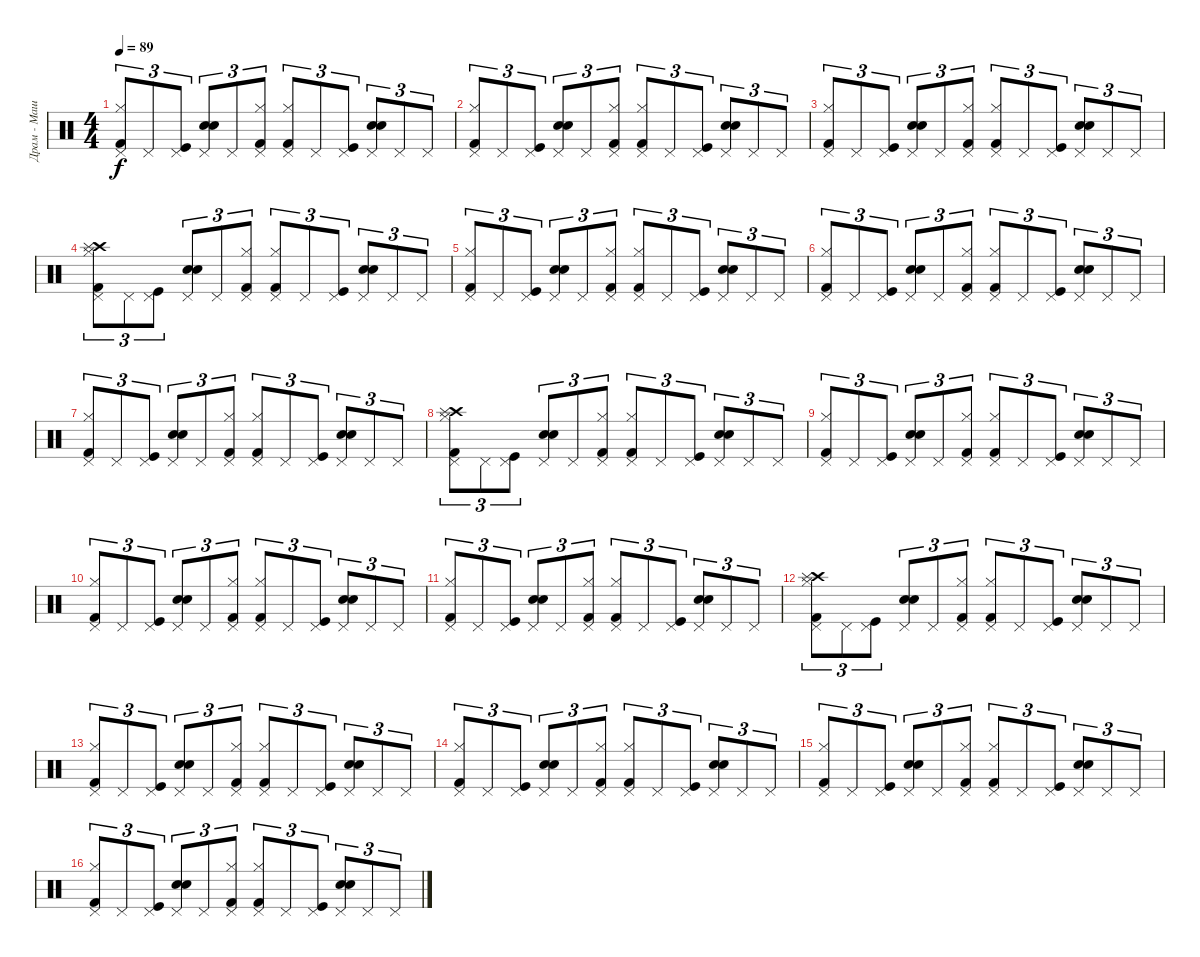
\track ("Драм - Машина" "Драм - Маш") {instrument percussion}
\staff {score}
\articulation defaults
\ts (4 4)
\tempo 89
\clef neutral
\ks c
("Kick (hit) 2" "Hi-Hat (closed)" "Pedal Hi-Hat (hit)").8{tu (3 2) dy f} "Pedal Hi-Hat (hit)".8{tu (3 2)} ("Pedal Hi-Hat (hit)" "Kick (hit)").8{tu (3 2)} ("Electric Snare (hit)" "Snare (hit) 2" "Pedal Hi-Hat (hit)").8{tu (3 2)} "Pedal Hi-Hat (hit)".8{tu (3 2)} ("Hi-Hat (closed)" "Kick (hit) 2" "Pedal Hi-Hat (hit)").8{tu (3 2)} ("Hi-Hat (closed)" "Kick (hit) 2" "Pedal Hi-Hat (hit)").8{tu (3 2)} "Pedal Hi-Hat (hit)".8{tu (3 2)} ("Kick (hit)" "Pedal Hi-Hat (hit)").8{tu (3 2)} ("Electric Snare (hit)" "Snare (hit) 2" "Pedal Hi-Hat (hit)").8{tu (3 2)} "Pedal Hi-Hat (hit)".8{tu (3 2)} "Pedal Hi-Hat (hit)".8{tu (3 2)} |
("Kick (hit) 2" "Hi-Hat (closed)" "Pedal Hi-Hat (hit)").8{tu (3 2)} "Pedal Hi-Hat (hit)".8{tu (3 2)} ("Kick (hit)" "Pedal Hi-Hat (hit)").8{tu (3 2)} ("Pedal Hi-Hat (hit)" "Snare (hit) 2" "Electric Snare (hit)").8{tu (3 2)} "Pedal Hi-Hat (hit)".8{tu (3 2)} ("Kick (hit) 2" "Hi-Hat (closed)" "Pedal Hi-Hat (hit)").8{tu (3 2)} ("Kick (hit) 2" "Hi-Hat (closed)" "Pedal Hi-Hat (hit)").8{tu (3 2)} "Pedal Hi-Hat (hit)".8{tu (3 2)} ("Kick (hit)" "Pedal Hi-Hat (hit)").8{tu (3 2)} ("Snare (hit) 2" "Pedal Hi-Hat (hit)" "Electric Snare (hit)").8{tu (3 2)} "Pedal Hi-Hat (hit)".8{tu (3 2)} "Pedal Hi-Hat (hit)".8{tu (3 2)} |
("Kick (hit) 2" "Hi-Hat (closed)" "Pedal Hi-Hat (hit)").8{tu (3 2)} "Pedal Hi-Hat (hit)".8{tu (3 2)} ("Kick (hit)" "Pedal Hi-Hat (hit)").8{tu (3 2)} ("Snare (hit) 2" "Pedal Hi-Hat (hit)" "Electric Snare (hit)").8{tu (3 2)} "Pedal Hi-Hat (hit)".8{tu (3 2)} ("Hi-Hat (closed)" "Pedal Hi-Hat (hit)" "Kick (hit) 2").8{tu (3 2)} ("Hi-Hat (closed)" "Pedal Hi-Hat (hit)" "Kick (hit) 2").8{tu (3 2)} "Pedal Hi-Hat (hit)".8{tu (3 2)} ("Pedal Hi-Hat (hit)" "Kick (hit)").8{tu (3 2)} ("Snare (hit) 2" "Electric Snare (hit)" "Pedal Hi-Hat (hit)").8{tu (3 2)} "Pedal Hi-Hat (hit)".8{tu (3 2)} "Pedal Hi-Hat (hit)".8{tu (3 2)} |
("Crash high (hit)" "Pedal Hi-Hat (hit)" "Kick (hit) 2" "Hi-Hat (closed)" "Splash (hit)").8{tu (3 2)} "Pedal Hi-Hat (hit)".8{tu (3 2)} ("Kick (hit)" "Pedal Hi-Hat (hit)").8{tu (3 2)} ("Electric Snare (hit)" "Pedal Hi-Hat (hit)" "Snare (hit) 2").8{tu (3 2)} "Pedal Hi-Hat (hit)".8{tu (3 2)} ("Hi-Hat (closed)" "Pedal Hi-Hat (hit)" "Kick (hit) 2").8{tu (3 2)} ("Kick (hit) 2" "Hi-Hat (closed)" "Pedal Hi-Hat (hit)").8{tu (3 2)} "Pedal Hi-Hat (hit)".8{tu (3 2)} ("Kick (hit)" "Pedal Hi-Hat (hit)").8{tu (3 2)} ("Snare (hit) 2" "Pedal Hi-Hat (hit)" "Electric Snare (hit)").8{tu (3 2)} "Pedal Hi-Hat (hit)".8{tu (3 2)} "Pedal Hi-Hat (hit)".8{tu (3 2)} |
("Hi-Hat (closed)" "Pedal Hi-Hat (hit)" "Kick (hit) 2").8{tu (3 2)} "Pedal Hi-Hat (hit)".8{tu (3 2)} ("Kick (hit)" "Pedal Hi-Hat (hit)").8{tu (3 2)} ("Electric Snare (hit)" "Pedal Hi-Hat (hit)" "Snare (hit) 2").8{tu (3 2)} "Pedal Hi-Hat (hit)".8{tu (3 2)} ("Hi-Hat (closed)" "Pedal Hi-Hat (hit)" "Kick (hit) 2").8{tu (3 2)} ("Kick (hit) 2" "Pedal Hi-Hat (hit)" "Hi-Hat (closed)").8{tu (3 2)} "Pedal Hi-Hat (hit)".8{tu (3 2)} ("Pedal Hi-Hat (hit)" "Kick (hit)").8{tu (3 2)} ("Pedal Hi-Hat (hit)" "Electric Snare (hit)" "Snare (hit) 2").8{tu (3 2)} "Pedal Hi-Hat (hit)".8{tu (3 2)} "Pedal Hi-Hat (hit)".8{tu (3 2)} |
("Hi-Hat (closed)" "Pedal Hi-Hat (hit)" "Kick (hit) 2").8{tu (3 2)} "Pedal Hi-Hat (hit)".8{tu (3 2)} ("Pedal Hi-Hat (hit)" "Kick (hit)").8{tu (3 2)} ("Pedal Hi-Hat (hit)" "Electric Snare (hit)" "Snare (hit) 2").8{tu (3 2)} "Pedal Hi-Hat (hit)".8{tu (3 2)} ("Hi-Hat (closed)" "Pedal Hi-Hat (hit)" "Kick (hit) 2").8{tu (3 2)} ("Hi-Hat (closed)" "Kick (hit) 2" "Pedal Hi-Hat (hit)").8{tu (3 2)} "Pedal Hi-Hat (hit)".8{tu (3 2)} ("Pedal Hi-Hat (hit)" "Kick (hit)").8{tu (3 2)} ("Pedal Hi-Hat (hit)" "Snare (hit) 2" "Electric Snare (hit)").8{tu (3 2)} "Pedal Hi-Hat (hit)".8{tu (3 2)} "Pedal Hi-Hat (hit)".8{tu (3 2)} |
("Kick (hit) 2" "Hi-Hat (closed)" "Pedal Hi-Hat (hit)").8{tu (3 2)} "Pedal Hi-Hat (hit)".8{tu (3 2)} ("Kick (hit)" "Pedal Hi-Hat (hit)").8{tu (3 2)} ("Snare (hit) 2" "Pedal Hi-Hat (hit)" "Electric Snare (hit)").8{tu (3 2)} "Pedal Hi-Hat (hit)".8{tu (3 2)} ("Pedal Hi-Hat (hit)" "Hi-Hat (closed)" "Kick (hit) 2").8{tu (3 2)} ("Kick (hit) 2" "Hi-Hat (closed)" "Pedal Hi-Hat (hit)").8{tu (3 2)} "Pedal Hi-Hat (hit)".8{tu (3 2)} ("Pedal Hi-Hat (hit)" "Kick (hit)").8{tu (3 2)} ("Snare (hit) 2" "Pedal Hi-Hat (hit)" "Electric Snare (hit)").8{tu (3 2)} "Pedal Hi-Hat (hit)".8{tu (3 2)} "Pedal Hi-Hat (hit)".8{tu (3 2)} |
("Crash high (hit)" "Hi-Hat (closed)" "Kick (hit) 2" "Splash (hit)" "Pedal Hi-Hat (hit)").8{tu (3 2)} "Pedal Hi-Hat (hit)".8{tu (3 2)} ("Kick (hit)" "Pedal Hi-Hat (hit)").8{tu (3 2)} ("Electric Snare (hit)" "Pedal Hi-Hat (hit)" "Snare (hit) 2").8{tu (3 2)} "Pedal Hi-Hat (hit)".8{tu (3 2)} ("Kick (hit) 2" "Pedal Hi-Hat (hit)" "Hi-Hat (closed)").8{tu (3 2)} ("Hi-Hat (closed)" "Pedal Hi-Hat (hit)" "Kick (hit) 2").8{tu (3 2)} "Pedal Hi-Hat (hit)".8{tu (3 2)} ("Pedal Hi-Hat (hit)" "Kick (hit)").8{tu (3 2)} ("Pedal Hi-Hat (hit)" "Electric Snare (hit)" "Snare (hit) 2").8{tu (3 2)} "Pedal Hi-Hat (hit)".8{tu (3 2)} "Pedal Hi-Hat (hit)".8{tu (3 2)} |
("Kick (hit) 2" "Hi-Hat (closed)" "Pedal Hi-Hat (hit)").8{tu (3 2)} "Pedal Hi-Hat (hit)".8{tu (3 2)} ("Pedal Hi-Hat (hit)" "Kick (hit)").8{tu (3 2)} ("Pedal Hi-Hat (hit)" "Snare (hit) 2" "Electric Snare (hit)").8{tu (3 2)} "Pedal Hi-Hat (hit)".8{tu (3 2)} ("Pedal Hi-Hat (hit)" "Kick (hit) 2" "Hi-Hat (closed)").8{tu (3 2)} ("Hi-Hat (closed)" "Kick (hit) 2" "Pedal Hi-Hat (hit)").8{tu (3 2)} "Pedal Hi-Hat (hit)".8{tu (3 2)} ("Kick (hit)" "Pedal Hi-Hat (hit)").8{tu (3 2)} ("Pedal Hi-Hat (hit)" "Snare (hit) 2" "Electric Snare (hit)").8{tu (3 2)} "Pedal Hi-Hat (hit)".8{tu (3 2)} "Pedal Hi-Hat (hit)".8{tu (3 2)} |
("Kick (hit) 2" "Hi-Hat (closed)" "Pedal Hi-Hat (hit)").8{tu (3 2)} "Pedal Hi-Hat (hit)".8{tu (3 2)} ("Kick (hit)" "Pedal Hi-Hat (hit)").8{tu (3 2)} ("Electric Snare (hit)" "Snare (hit) 2" "Pedal Hi-Hat (hit)").8{tu (3 2)} "Pedal Hi-Hat (hit)".8{tu (3 2)} ("Pedal Hi-Hat (hit)" "Hi-Hat (closed)" "Kick (hit) 2").8{tu (3 2)} ("Kick (hit) 2" "Hi-Hat (closed)" "Pedal Hi-Hat (hit)").8{tu (3 2)} "Pedal Hi-Hat (hit)".8{tu (3 2)} ("Kick (hit)" "Pedal Hi-Hat (hit)").8{tu (3 2)} ("Electric Snare (hit)" "Pedal Hi-Hat (hit)" "Snare (hit) 2").8{tu (3 2)} "Pedal Hi-Hat (hit)".8{tu (3 2)} "Pedal Hi-Hat (hit)".8{tu (3 2)} |
("Kick (hit) 2" "Hi-Hat (closed)" "Pedal Hi-Hat (hit)").8{tu (3 2)} "Pedal Hi-Hat (hit)".8{tu (3 2)} ("Kick (hit)" "Pedal Hi-Hat (hit)").8{tu (3 2)} ("Electric Snare (hit)" "Pedal Hi-Hat (hit)" "Snare (hit) 2").8{tu (3 2)} "Pedal Hi-Hat (hit)".8{tu (3 2)} ("Kick (hit) 2" "Pedal Hi-Hat (hit)" "Hi-Hat (closed)").8{tu (3 2)} ("Hi-Hat (closed)" "Pedal Hi-Hat (hit)" "Kick (hit) 2").8{tu (3 2)} "Pedal Hi-Hat (hit)".8{tu (3 2)} ("Pedal Hi-Hat (hit)" "Kick (hit)").8{tu (3 2)} ("Pedal Hi-Hat (hit)" "Electric Snare (hit)" "Snare (hit) 2").8{tu (3 2)} "Pedal Hi-Hat (hit)".8{tu (3 2)} "Pedal Hi-Hat (hit)".8{tu (3 2)} |
("Crash high (hit)" "Pedal Hi-Hat (hit)" "Splash (hit)" "Hi-Hat (closed)" "Kick (hit) 2").8{tu (3 2)} "Pedal Hi-Hat (hit)".8{tu (3 2)} ("Kick (hit)" "Pedal Hi-Hat (hit)").8{tu (3 2)} ("Pedal Hi-Hat (hit)" "Electric Snare (hit)" "Snare (hit) 2").8{tu (3 2)} "Pedal Hi-Hat (hit)".8{tu (3 2)} ("Pedal Hi-Hat (hit)" "Hi-Hat (closed)" "Kick (hit) 2").8{tu (3 2)} ("Kick (hit) 2" "Hi-Hat (closed)" "Pedal Hi-Hat (hit)").8{tu (3 2)} "Pedal Hi-Hat (hit)".8{tu (3 2)} ("Kick (hit)" "Pedal Hi-Hat (hit)").8{tu (3 2)} ("Snare (hit) 2" "Electric Snare (hit)" "Pedal Hi-Hat (hit)").8{tu (3 2)} "Pedal Hi-Hat (hit)".8{tu (3 2)} "Pedal Hi-Hat (hit)".8{tu (3 2)} |
("Hi-Hat (closed)" "Pedal Hi-Hat (hit)" "Kick (hit) 2").8{tu (3 2)} "Pedal Hi-Hat (hit)".8{tu (3 2)} ("Kick (hit)" "Pedal Hi-Hat (hit)").8{tu (3 2)} ("Pedal Hi-Hat (hit)" "Electric Snare (hit)" "Snare (hit) 2").8{tu (3 2)} "Pedal Hi-Hat (hit)".8{tu (3 2)} ("Pedal Hi-Hat (hit)" "Hi-Hat (closed)" "Kick (hit) 2").8{tu (3 2)} ("Kick (hit) 2" "Pedal Hi-Hat (hit)" "Hi-Hat (closed)").8{tu (3 2)} "Pedal Hi-Hat (hit)".8{tu (3 2)} ("Pedal Hi-Hat (hit)" "Kick (hit)").8{tu (3 2)} ("Pedal Hi-Hat (hit)" "Snare (hit) 2" "Electric Snare (hit)").8{tu (3 2)} "Pedal Hi-Hat (hit)".8{tu (3 2)} "Pedal Hi-Hat (hit)".8{tu (3 2)} |
("Hi-Hat (closed)" "Pedal Hi-Hat (hit)" "Kick (hit) 2").8{tu (3 2)} "Pedal Hi-Hat (hit)".8{tu (3 2)} ("Pedal Hi-Hat (hit)" "Kick (hit)").8{tu (3 2)} ("Electric Snare (hit)" "Pedal Hi-Hat (hit)" "Snare (hit) 2").8{tu (3 2)} "Pedal Hi-Hat (hit)".8{tu (3 2)} ("Pedal Hi-Hat (hit)" "Hi-Hat (closed)" "Kick (hit) 2").8{tu (3 2)} ("Hi-Hat (closed)" "Kick (hit) 2" "Pedal Hi-Hat (hit)").8{tu (3 2)} "Pedal Hi-Hat (hit)".8{tu (3 2)} ("Pedal Hi-Hat (hit)" "Kick (hit)").8{tu (3 2)} ("Pedal Hi-Hat (hit)" "Electric Snare (hit)" "Snare (hit) 2").8{tu (3 2)} "Pedal Hi-Hat (hit)".8{tu (3 2)} "Pedal Hi-Hat (hit)".8{tu (3 2)} |
("Kick (hit) 2" "Hi-Hat (closed)" "Pedal Hi-Hat (hit)").8{tu (3 2)} "Pedal Hi-Hat (hit)".8{tu (3 2)} ("Kick (hit)" "Pedal Hi-Hat (hit)").8{tu (3 2)} ("Pedal Hi-Hat (hit)" "Snare (hit) 2" "Electric Snare (hit)").8{tu (3 2)} "Pedal Hi-Hat (hit)".8{tu (3 2)} ("Hi-Hat (closed)" "Pedal Hi-Hat (hit)" "Kick (hit) 2").8{tu (3 2)} ("Kick (hit) 2" "Hi-Hat (closed)" "Pedal Hi-Hat (hit)").8{tu (3 2)} "Pedal Hi-Hat (hit)".8{tu (3 2)} ("Pedal Hi-Hat (hit)" "Kick (hit)").8{tu (3 2)} ("Snare (hit) 2" "Electric Snare (hit)" "Pedal Hi-Hat (hit)").8{tu (3 2)} "Pedal Hi-Hat (hit)".8{tu (3 2)} "Pedal Hi-Hat (hit)".8{tu (3 2)} |
("Kick (hit) 2" "Pedal Hi-Hat (hit)" "Hi-Hat (closed)").8{tu (3 2)} "Pedal Hi-Hat (hit)".8{tu (3 2)} ("Kick (hit)" "Pedal Hi-Hat (hit)").8{tu (3 2)} ("Electric Snare (hit)" "Snare (hit) 2" "Pedal Hi-Hat (hit)").8{tu (3 2)} "Pedal Hi-Hat (hit)".8{tu (3 2)} ("Kick (hit) 2" "Hi-Hat (closed)" "Pedal Hi-Hat (hit)").8{tu (3 2)} ("Pedal Hi-Hat (hit)" "Hi-Hat (closed)" "Kick (hit) 2").8{tu (3 2)} "Pedal Hi-Hat (hit)".8{tu (3 2)} ("Kick (hit)" "Pedal Hi-Hat (hit)").8{tu (3 2)} ("Electric Snare (hit)" "Snare (hit) 2" "Pedal Hi-Hat (hit)").8{tu (3 2)} "Pedal Hi-Hat (hit)".8{tu (3 2)} "Pedal Hi-Hat (hit)".8{tu (3 2)}
